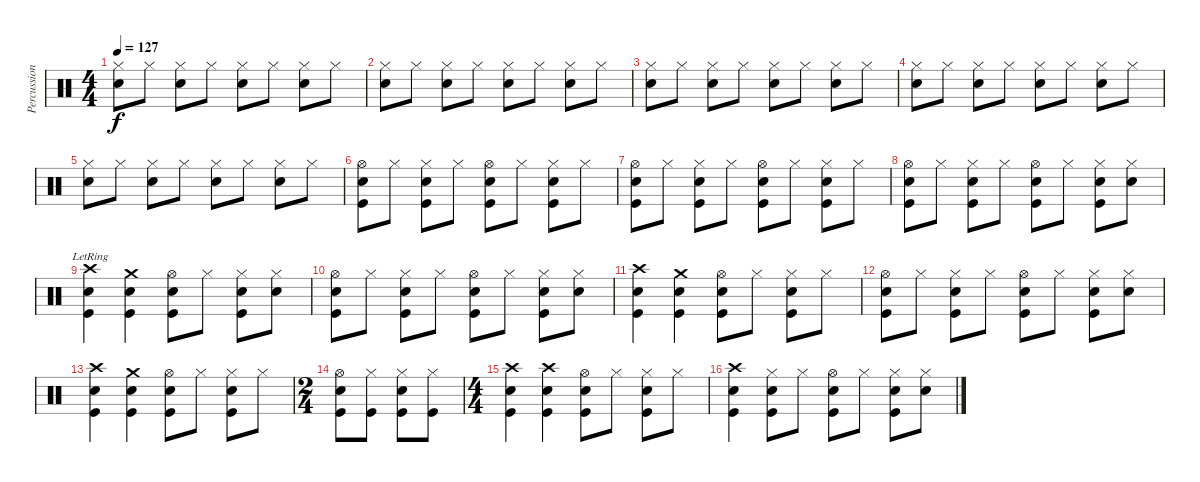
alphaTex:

\track ("Percussion" "Percussion") {instrument percussion}
\staff {score}
\articulation defaults
\ts (4 4)
\tempo 127
\clef neutral
\ks c
("Hi-Hat (closed)" "Snare (hit) 2").8{dy f} "Hi-Hat (closed)".8 ("Hi-Hat (closed)" "Snare (hit) 2").8 "Hi-Hat (closed)".8 ("Hi-Hat (closed)" "Snare (hit) 2").8 "Hi-Hat (closed)".8 ("Hi-Hat (closed)" "Snare (hit) 2").8 "Hi-Hat (closed)".8 |
("Hi-Hat (closed)" "Snare (hit) 2").8 "Hi-Hat (closed)".8 ("Hi-Hat (closed)" "Snare (hit) 2").8 "Hi-Hat (closed)".8 ("Hi-Hat (closed)" "Snare (hit) 2").8 "Hi-Hat (closed)".8 ("Hi-Hat (closed)" "Snare (hit) 2").8 "Hi-Hat (closed)".8 |
("Hi-Hat (closed)" "Snare (hit) 2").8 "Hi-Hat (closed)".8 ("Hi-Hat (closed)" "Snare (hit) 2").8 "Hi-Hat (closed)".8 ("Hi-Hat (closed)" "Snare (hit) 2").8 "Hi-Hat (closed)".8 ("Hi-Hat (closed)" "Snare (hit) 2").8 "Hi-Hat (closed)".8 |
("Hi-Hat (closed)" "Snare (hit) 2").8 "Hi-Hat (closed)".8 ("Hi-Hat (closed)" "Snare (hit) 2").8 "Hi-Hat (closed)".8 ("Hi-Hat (closed)" "Snare (hit) 2").8 "Hi-Hat (closed)".8 ("Hi-Hat (closed)" "Snare (hit) 2").8 "Hi-Hat (closed)".8 |
("Hi-Hat (closed)" "Snare (hit) 2").8 "Hi-Hat (closed)".8 ("Hi-Hat (closed)" "Snare (hit) 2").8 "Hi-Hat (closed)".8 ("Hi-Hat (closed)" "Snare (hit) 2").8 "Hi-Hat (closed)".8 ("Hi-Hat (closed)" "Snare (hit) 2").8 "Hi-Hat (closed)".8 |
("Hi-Hat (open)" "Snare (hit) 2" "Kick (hit)").8 "Hi-Hat (closed)".8 ("Hi-Hat (closed)" "Snare (hit) 2" "Kick (hit)").8 "Hi-Hat (closed)".8 ("Hi-Hat (open)" "Snare (hit) 2" "Kick (hit)").8 "Hi-Hat (closed)".8 ("Hi-Hat (closed)" "Snare (hit) 2" "Kick (hit)").8 "Hi-Hat (closed)".8 |
("Hi-Hat (open)" "Snare (hit) 2" "Kick (hit)").8 "Hi-Hat (closed)".8 ("Hi-Hat (closed)" "Snare (hit) 2" "Kick (hit)").8 "Hi-Hat (closed)".8 ("Hi-Hat (open)" "Snare (hit) 2" "Kick (hit)").8 "Hi-Hat (closed)".8 ("Hi-Hat (closed)" "Snare (hit) 2" "Kick (hit)").8 "Hi-Hat (closed)".8 |
("Hi-Hat (open)" "Snare (hit) 2" "Kick (hit)").8 "Hi-Hat (closed)".8 ("Hi-Hat (closed)" "Snare (hit) 2" "Kick (hit)").8 "Hi-Hat (closed)".8 ("Hi-Hat (open)" "Snare (hit) 2" "Kick (hit)").8 "Hi-Hat (closed)".8 ("Hi-Hat (closed)" "Snare (hit) 2" "Kick (hit)").8 ("Hi-Hat (closed)" "Snare (hit) 2").8 |
("Crash high (hit)"{lr} "Snare (hit) 2" "Kick (hit)").4 ("Crash medium (hit)" "Snare (hit) 2" "Kick (hit)").4 ("Hi-Hat (open)" "Snare (hit) 2" "Kick (hit)").8 "Hi-Hat (closed)".8 ("Hi-Hat (closed)" "Snare (hit) 2" "Kick (hit)").8 ("Hi-Hat (closed)" "Snare (hit) 2").8 |
("Hi-Hat (open)" "Snare (hit) 2" "Kick (hit)").8 "Hi-Hat (closed)".8 ("Hi-Hat (closed)" "Snare (hit) 2" "Kick (hit)").8 "Hi-Hat (closed)".8 ("Hi-Hat (open)" "Snare (hit) 2" "Kick (hit)").8 "Hi-Hat (closed)".8 ("Hi-Hat (closed)" "Snare (hit) 2" "Kick (hit)").8 ("Hi-Hat (closed)" "Snare (hit) 2").8 |
("Crash high (hit)" "Snare (hit) 2" "Kick (hit)").4 ("Crash medium (hit)" "Snare (hit) 2" "Kick (hit)").4 ("Hi-Hat (open)" "Snare (hit) 2" "Kick (hit)").8 "Hi-Hat (closed)".8 ("Hi-Hat (closed)" "Snare (hit) 2" "Kick (hit)").8 "Hi-Hat (closed)".8 |
("Hi-Hat (open)" "Snare (hit) 2" "Kick (hit)").8 "Hi-Hat (closed)".8 ("Hi-Hat (closed)" "Snare (hit) 2" "Kick (hit)").8 "Hi-Hat (closed)".8 ("Hi-Hat (open)" "Snare (hit) 2" "Kick (hit)").8 "Hi-Hat (closed)".8 ("Hi-Hat (closed)" "Snare (hit) 2" "Kick (hit)").8 ("Hi-Hat (closed)" "Snare (hit) 2").8 |
("Crash high (hit)" "Snare (hit) 2" "Kick (hit)").4 ("Crash medium (hit)" "Snare (hit) 2" "Kick (hit)").4 ("Hi-Hat (open)" "Snare (hit) 2" "Kick (hit)").8 "Hi-Hat (closed)".8 ("Hi-Hat (closed)" "Snare (hit) 2" "Kick (hit)").8 "Hi-Hat (closed)".8 |
\ts (2 4)
("Hi-Hat (open)" "Snare (hit) 2" "Kick (hit)").8 ("Hi-Hat (closed)" "Kick (hit)").8 ("Hi-Hat (closed)" "Snare (hit) 2" "Kick (hit)").8 ("Hi-Hat (closed)" "Kick (hit)").8 |
\ts (4 4)
("Crash high (hit)" "Snare (hit) 2" "Kick (hit)").4 ("Crash high (hit)" "Snare (hit) 2" "Kick (hit)").4 ("Hi-Hat (open)" "Snare (hit) 2" "Kick (hit)").8 "Hi-Hat (closed)".8 ("Hi-Hat (closed)" "Snare (hit) 2" "Kick (hit)").8 "Hi-Hat (closed)".8 |
("Crash high (hit)" "Snare (hit) 2" "Kick (hit)").4 ("Hi-Hat (closed)" "Snare (hit) 2" "Kick (hit)").8 "Hi-Hat (closed)".8 ("Hi-Hat (open)" "Snare (hit) 2" "Kick (hit)").8 "Hi-Hat (closed)".8 ("Hi-Hat (closed)" "Snare (hit) 2" "Kick (hit)").8 ("Hi-Hat (closed)" "Snare (hit) 2").8
